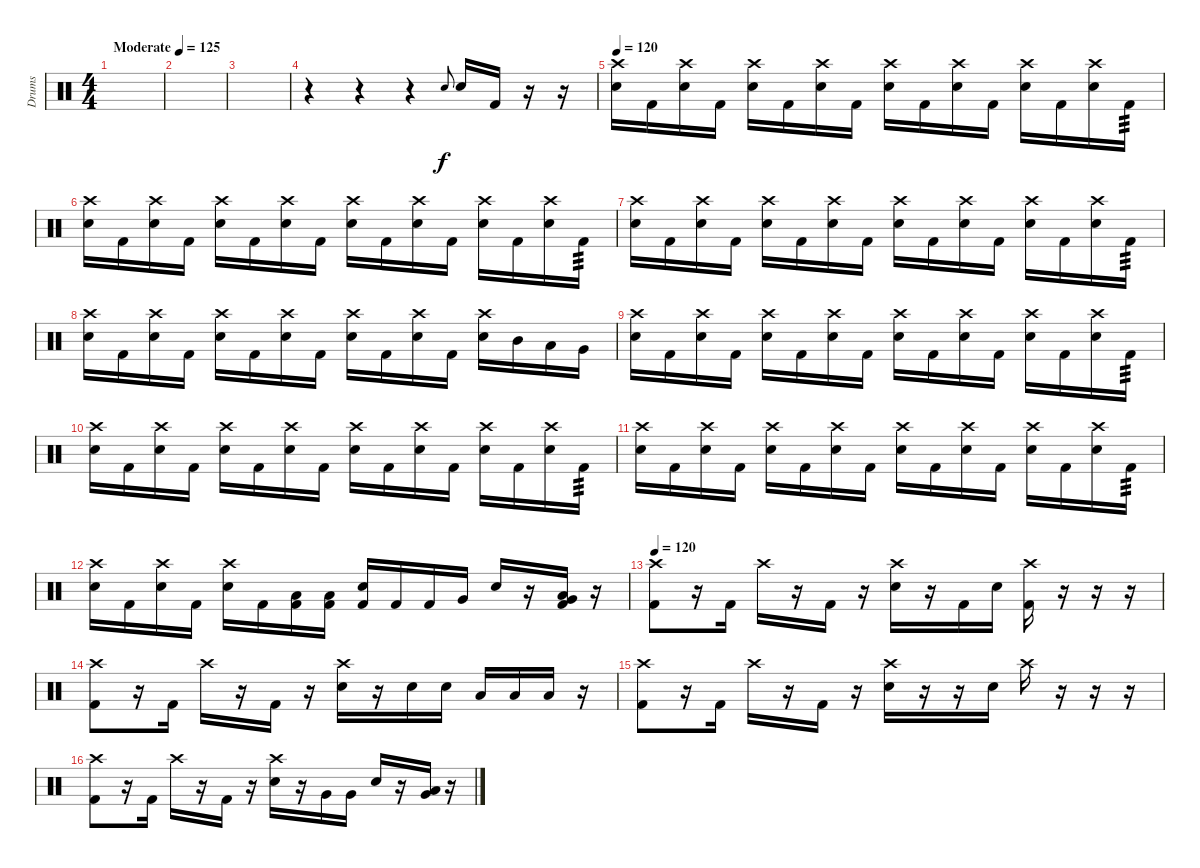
\track ("Drums" "Drums") {instrument percussion}
\staff {score}
\articulation defaults
\ts (4 4)
\tempo (125 "Moderate")
\tempo 118
\tempo (125 "Moderate")
\clef neutral
\ks c
|
|
|
r.4 r.4 r.4 "Electric Snare (hit)".8{gr onbeat} "Electric Snare (hit)".16 "Kick (hit) 2".16 r.16 r.16 |
\tempo 120
("Crash high (hit)" "Electric Snare (hit)").16 "Kick (hit) 2".16 ("Crash high (hit)" "Electric Snare (hit)").16 "Kick (hit) 2".16 ("Crash high (hit)" "Electric Snare (hit)").16 "Kick (hit) 2".16 ("Crash high (hit)" "Electric Snare (hit)").16 "Kick (hit) 2".16 ("Crash high (hit)" "Electric Snare (hit)").16 "Kick (hit) 2".16 ("Crash high (hit)" "Electric Snare (hit)").16 "Kick (hit) 2".16 ("Crash high (hit)" "Electric Snare (hit)").16 "Kick (hit) 2".16 ("Crash high (hit)" "Electric Snare (hit)").16 "Kick (hit) 2".16{tp 3} |
("Crash high (hit)" "Electric Snare (hit)").16 "Kick (hit) 2".16 ("Crash high (hit)" "Electric Snare (hit)").16 "Kick (hit) 2".16 ("Crash high (hit)" "Electric Snare (hit)").16 "Kick (hit) 2".16 ("Crash high (hit)" "Electric Snare (hit)").16 "Kick (hit) 2".16 ("Crash high (hit)" "Electric Snare (hit)").16 "Kick (hit) 2".16 ("Crash high (hit)" "Electric Snare (hit)").16 "Kick (hit) 2".16 ("Crash high (hit)" "Electric Snare (hit)").16 "Kick (hit) 2".16 ("Crash high (hit)" "Electric Snare (hit)").16 "Kick (hit) 2".16{tp 3} |
("Crash high (hit)" "Electric Snare (hit)").16 "Kick (hit) 2".16 ("Crash high (hit)" "Electric Snare (hit)").16 "Kick (hit) 2".16 ("Crash high (hit)" "Electric Snare (hit)").16 "Kick (hit) 2".16 ("Crash high (hit)" "Electric Snare (hit)").16 "Kick (hit) 2".16 ("Crash high (hit)" "Electric Snare (hit)").16 "Kick (hit) 2".16 ("Crash high (hit)" "Electric Snare (hit)").16 "Kick (hit) 2".16 ("Crash high (hit)" "Electric Snare (hit)").16 "Kick (hit) 2".16 ("Crash high (hit)" "Electric Snare (hit)").16 "Kick (hit) 2".16{tp 3} |
("Crash high (hit)" "Electric Snare (hit)").16 "Kick (hit) 2".16 ("Crash high (hit)" "Electric Snare (hit)").16 "Kick (hit) 2".16 ("Crash high (hit)" "Electric Snare (hit)").16 "Kick (hit) 2".16 ("Crash high (hit)" "Electric Snare (hit)").16 "Kick (hit) 2".16 ("Crash high (hit)" "Electric Snare (hit)").16 "Kick (hit) 2".16 ("Crash high (hit)" "Electric Snare (hit)").16 "Kick (hit) 2".16 ("Crash high (hit)" "Electric Snare (hit)").16 "Mid Tom (hit)".16 "Low Tom (hit)".16 "Very Low Tom (hit)".16 |
("Crash high (hit)" "Electric Snare (hit)").16 "Kick (hit) 2".16 ("Crash high (hit)" "Electric Snare (hit)").16 "Kick (hit) 2".16 ("Crash high (hit)" "Electric Snare (hit)").16 "Kick (hit) 2".16 ("Crash high (hit)" "Electric Snare (hit)").16 "Kick (hit) 2".16 ("Crash high (hit)" "Electric Snare (hit)").16 "Kick (hit) 2".16 ("Crash high (hit)" "Electric Snare (hit)").16 "Kick (hit) 2".16 ("Crash high (hit)" "Electric Snare (hit)").16 "Kick (hit) 2".16 ("Crash high (hit)" "Electric Snare (hit)").16 "Kick (hit) 2".16{tp 3} |
("Crash high (hit)" "Electric Snare (hit)").16 "Kick (hit) 2".16 ("Crash high (hit)" "Electric Snare (hit)").16 "Kick (hit) 2".16 ("Crash high (hit)" "Electric Snare (hit)").16 "Kick (hit) 2".16 ("Crash high (hit)" "Electric Snare (hit)").16 "Kick (hit) 2".16 ("Crash high (hit)" "Electric Snare (hit)").16 "Kick (hit) 2".16 ("Crash high (hit)" "Electric Snare (hit)").16 "Kick (hit) 2".16 ("Crash high (hit)" "Electric Snare (hit)").16 "Kick (hit) 2".16 ("Crash high (hit)" "Electric Snare (hit)").16 "Kick (hit) 2".16{tp 3} |
("Crash high (hit)" "Electric Snare (hit)").16 "Kick (hit) 2".16 ("Crash high (hit)" "Electric Snare (hit)").16 "Kick (hit) 2".16 ("Crash high (hit)" "Electric Snare (hit)").16 "Kick (hit) 2".16 ("Crash high (hit)" "Electric Snare (hit)").16 "Kick (hit) 2".16 ("Crash high (hit)" "Electric Snare (hit)").16 "Kick (hit) 2".16 ("Crash high (hit)" "Electric Snare (hit)").16 "Kick (hit) 2".16 ("Crash high (hit)" "Electric Snare (hit)").16 "Kick (hit) 2".16 ("Crash high (hit)" "Electric Snare (hit)").16 "Kick (hit) 2".16{tp 3} |
("Crash high (hit)" "Electric Snare (hit)").16 "Kick (hit) 2".16 ("Crash high (hit)" "Electric Snare (hit)").16 "Kick (hit) 2".16 ("Crash high (hit)" "Electric Snare (hit)").16 "Kick (hit) 2".16 ("Low Tom (hit)" "Kick (hit) 2").16 ("Low Tom (hit)" "Kick (hit) 2").16 ("Electric Snare (hit)" "Kick (hit) 2").16 "Kick (hit) 2".16 "Kick (hit) 2".16 "Very Low Tom (hit)".16 "Electric Snare (hit)".16 r.16 ("Low Tom (hit)" "Very Low Tom (hit)" "Kick (hit) 2").16 r.16 |
\tempo 120
("Crash high (hit)" "Kick (hit) 2").8 r.16 "Kick (hit) 2".16 "Crash high (hit)".16 r.16 "Kick (hit) 2".16 r.16 ("Crash high (hit)" "Electric Snare (hit)").16 r.16 "Kick (hit) 2".16 "Electric Snare (hit)".16 ("Crash high (hit)" "Kick (hit) 2").16 r.16 r.16 r.16 |
("Crash high (hit)" "Kick (hit) 2").8 r.16 "Kick (hit) 2".16 "Crash high (hit)".16 r.16 "Kick (hit) 2".16 r.16 ("Crash high (hit)" "Electric Snare (hit)").16 r.16 "Electric Snare (hit)".16 "Electric Snare (hit)".16 "Low Tom (hit)".16 "Low Tom (hit)".16 "Low Floor Tom (hit)".16 r.16 |
("Crash high (hit)" "Kick (hit) 2").8 r.16 "Kick (hit) 2".16 "Crash high (hit)".16 r.16 "Kick (hit) 2".16 r.16 ("Crash high (hit)" "Electric Snare (hit)").16 r.16 r.16 "Electric Snare (hit)".16 "Crash high (hit)".16 r.16 r.16 r.16 |
("Crash high (hit)" "Kick (hit) 2").8 r.16 "Kick (hit) 2".16 "Crash high (hit)".16 r.16 "Kick (hit) 2".16 r.16 ("Crash high (hit)" "Electric Snare (hit)").16 r.16 "Very Low Tom (hit)".16 "Very Low Tom (hit)".16 "Electric Snare (hit)".16 r.16 ("Very Low Tom (hit)" "Low Floor Tom (hit)").16 r.16
